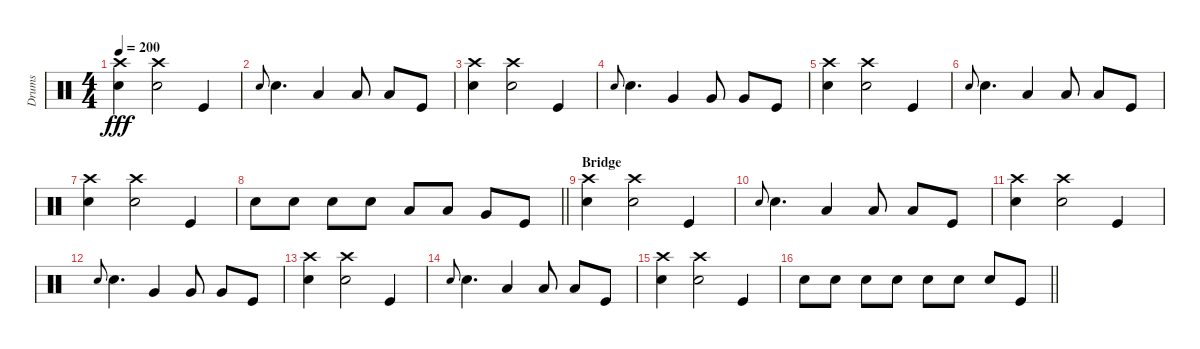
\track ("Drums" "Drums") {instrument percussion}
\staff {score}
\articulation defaults
\ts (4 4)
\tempo 200
\clef neutral
\ks c
("Crash high (hit)" "Snare (hit) 2").4{dy fff} ("Crash high (hit)" "Snare (hit) 2").2 "Kick (hit)".4 |
"Snare (hit) 2".8{gr onbeat} "Snare (hit) 2".4{d} "Low Tom (hit)".4 "Low Tom (hit)".8 "Low Tom (hit)".8 "Kick (hit)".8 |
("Crash high (hit)" "Snare (hit) 2").4 ("Crash high (hit)" "Snare (hit) 2").2 "Kick (hit)".4 |
"Snare (hit) 2".8{gr onbeat} "Snare (hit) 2".4{d} "Very Low Tom (hit)".4 "Very Low Tom (hit)".8 "Very Low Tom (hit)".8 "Kick (hit)".8 |
("Crash high (hit)" "Snare (hit) 2").4 ("Crash high (hit)" "Snare (hit) 2").2 "Kick (hit)".4 |
"Snare (hit) 2".8{gr onbeat} "Snare (hit) 2".4{d} "Low Tom (hit)".4 "Low Tom (hit)".8 "Low Tom (hit)".8 "Kick (hit)".8 |
("Crash high (hit)" "Snare (hit) 2").4 ("Crash high (hit)" "Snare (hit) 2").2 "Kick (hit)".4 |
\barLineRight lightlight "Snare (hit) 2".8 "Snare (hit) 2".8 "Snare (hit) 2".8 "Snare (hit) 2".8 "Low Tom (hit)".8 "Low Tom (hit)".8 "Very Low Tom (hit)".8 "Kick (hit)".8
|
\section ("" "Bridge")
("Crash high (hit)" "Snare (hit) 2").4 ("Crash high (hit)" "Snare (hit) 2").2 "Kick (hit)".4 |
"Snare (hit) 2".8{gr onbeat} "Snare (hit) 2".4{d} "Low Tom (hit)".4 "Low Tom (hit)".8 "Low Tom (hit)".8 "Kick (hit)".8 |
("Crash high (hit)" "Snare (hit) 2").4 ("Crash high (hit)" "Snare (hit) 2").2 "Kick (hit)".4 |
"Snare (hit) 2".8{gr onbeat} "Snare (hit) 2".4{d} "Very Low Tom (hit)".4 "Very Low Tom (hit)".8 "Very Low Tom (hit)".8 "Kick (hit)".8 |
("Crash high (hit)" "Snare (hit) 2").4 ("Crash high (hit)" "Snare (hit) 2").2 "Kick (hit)".4 |
"Snare (hit) 2".8{gr onbeat} "Snare (hit) 2".4{d} "Low Tom (hit)".4 "Low Tom (hit)".8 "Low Tom (hit)".8 "Kick (hit)".8 |
("Crash high (hit)" "Snare (hit) 2").4 ("Crash high (hit)" "Snare (hit) 2").2 "Kick (hit)".4 |
\barLineRight lightlight "Snare (hit) 2".8 "Snare (hit) 2".8 "Snare (hit) 2".8 "Snare (hit) 2".8 "Snare (hit) 2".8 "Snare (hit) 2".8 "Snare (hit) 2".8 "Kick (hit)".8
